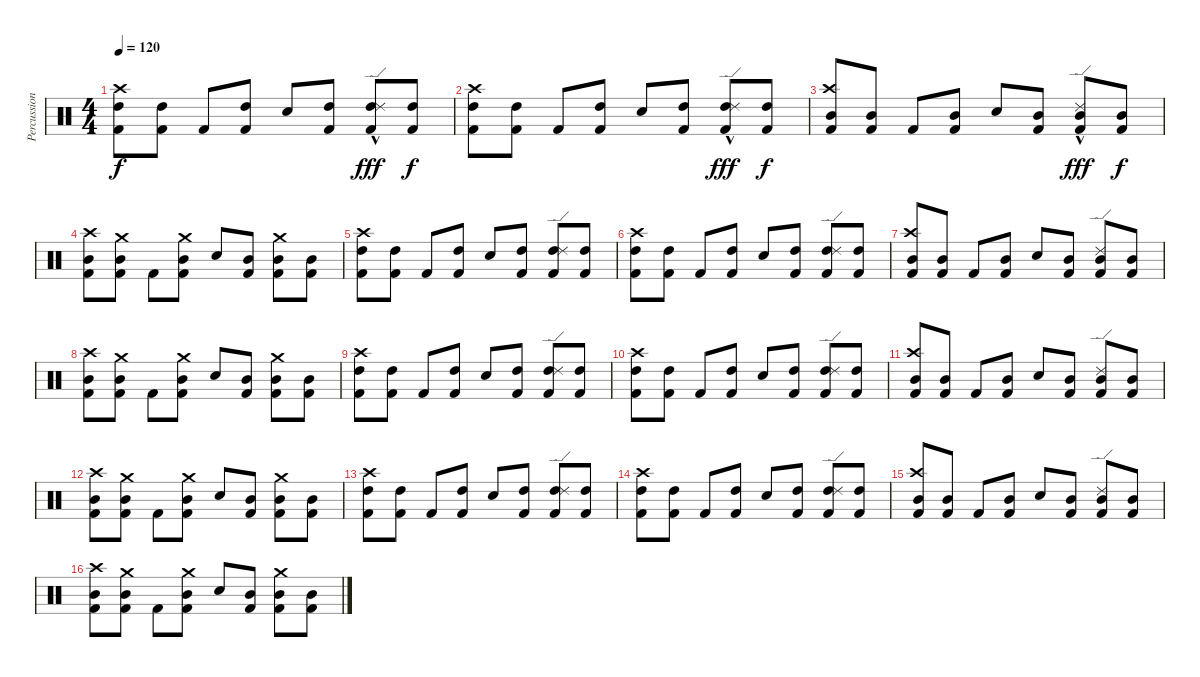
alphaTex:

\track ("Percussion" "Percussion") {instrument percussion}
\staff {score}
\articulation defaults
\ts (4 4)
\tempo 120
\clef neutral
\ks c
("Kick (hit) 2" "High Tom (hit)" "Crash high (hit)").8{dy f} ("Kick (hit) 2" "High Tom (hit)").8 "Kick (hit) 2".8 ("Kick (hit) 2" "High Tom (hit)").8 "Electric Snare (hit)".8 ("Kick (hit) 2" "High Tom (hit)").8 ("Kick (hit) 2" "High Tom (hit)" "Ride (edge) 2"{hac}).8{dy fff} ("Kick (hit) 2" "High Tom (hit)").8{dy f} |
("Kick (hit) 2" "High Tom (hit)" "Crash high (hit)").8 ("Kick (hit) 2" "High Tom (hit)").8 "Kick (hit) 2".8 ("Kick (hit) 2" "High Tom (hit)").8 "Electric Snare (hit)".8 ("Kick (hit) 2" "High Tom (hit)").8 ("Kick (hit) 2" "High Tom (hit)" "Ride (edge) 2"{hac}).8{dy fff} ("Kick (hit) 2" "High Tom (hit)").8{dy f} |
("Kick (hit) 2" "Mid Tom (hit)" "Crash high (hit)").8 ("Kick (hit) 2" "Mid Tom (hit)").8 "Kick (hit) 2".8 ("Kick (hit) 2" "Mid Tom (hit)").8 "Electric Snare (hit)".8 ("Kick (hit) 2" "Mid Tom (hit)").8 ("Kick (hit) 2" "Mid Tom (hit)" "Ride (edge) 2"{hac}).8{dy fff} ("Kick (hit) 2" "Mid Tom (hit)").8{dy f} |
("Kick (hit) 2" "Mid Tom (hit)" "Crash high (hit)").8 ("Kick (hit) 2" "Mid Tom (hit)" "Crash medium (hit)").8 "Kick (hit) 2".8 ("Kick (hit) 2" "Mid Tom (hit)" "Crash medium (hit)").8 "Electric Snare (hit)".8 ("Kick (hit) 2" "Mid Tom (hit)").8 ("Kick (hit) 2" "Mid Tom (hit)" "Crash medium (hit)").8 ("Kick (hit) 2" "Mid Tom (hit)").8 |
("Kick (hit) 2" "High Tom (hit)" "Crash high (hit)").8 ("Kick (hit) 2" "High Tom (hit)").8 "Kick (hit) 2".8 ("Kick (hit) 2" "High Tom (hit)").8 "Electric Snare (hit)".8 ("Kick (hit) 2" "High Tom (hit)").8 ("Kick (hit) 2" "High Tom (hit)" "Ride (edge) 2").8 ("Kick (hit) 2" "High Tom (hit)").8 |
("Kick (hit) 2" "High Tom (hit)" "Crash high (hit)").8 ("Kick (hit) 2" "High Tom (hit)").8 "Kick (hit) 2".8 ("Kick (hit) 2" "High Tom (hit)").8 "Electric Snare (hit)".8 ("Kick (hit) 2" "High Tom (hit)").8 ("Kick (hit) 2" "High Tom (hit)" "Ride (edge) 2").8 ("Kick (hit) 2" "High Tom (hit)").8 |
("Kick (hit) 2" "Mid Tom (hit)" "Crash high (hit)").8 ("Kick (hit) 2" "Mid Tom (hit)").8 "Kick (hit) 2".8 ("Kick (hit) 2" "Mid Tom (hit)").8 "Electric Snare (hit)".8 ("Kick (hit) 2" "Mid Tom (hit)").8 ("Kick (hit) 2" "Mid Tom (hit)" "Ride (edge) 2").8 ("Kick (hit) 2" "Mid Tom (hit)").8 |
("Kick (hit) 2" "Mid Tom (hit)" "Crash high (hit)").8 ("Kick (hit) 2" "Mid Tom (hit)" "Crash medium (hit)").8 "Kick (hit) 2".8 ("Kick (hit) 2" "Mid Tom (hit)" "Crash medium (hit)").8 "Electric Snare (hit)".8 ("Kick (hit) 2" "Mid Tom (hit)").8 ("Kick (hit) 2" "Mid Tom (hit)" "Crash medium (hit)").8 ("Kick (hit) 2" "Mid Tom (hit)").8 |
("Kick (hit) 2" "High Tom (hit)" "Crash high (hit)").8 ("Kick (hit) 2" "High Tom (hit)").8 "Kick (hit) 2".8 ("Kick (hit) 2" "High Tom (hit)").8 "Electric Snare (hit)".8 ("Kick (hit) 2" "High Tom (hit)").8 ("Kick (hit) 2" "High Tom (hit)" "Ride (edge) 2").8 ("Kick (hit) 2" "High Tom (hit)").8 |
("Kick (hit) 2" "High Tom (hit)" "Crash high (hit)").8 ("Kick (hit) 2" "High Tom (hit)").8 "Kick (hit) 2".8 ("Kick (hit) 2" "High Tom (hit)").8 "Electric Snare (hit)".8 ("Kick (hit) 2" "High Tom (hit)").8 ("Kick (hit) 2" "High Tom (hit)" "Ride (edge) 2").8 ("Kick (hit) 2" "High Tom (hit)").8 |
("Kick (hit) 2" "Mid Tom (hit)" "Crash high (hit)").8 ("Kick (hit) 2" "Mid Tom (hit)").8 "Kick (hit) 2".8 ("Kick (hit) 2" "Mid Tom (hit)").8 "Electric Snare (hit)".8 ("Kick (hit) 2" "Mid Tom (hit)").8 ("Kick (hit) 2" "Mid Tom (hit)" "Ride (edge) 2").8 ("Kick (hit) 2" "Mid Tom (hit)").8 |
("Kick (hit) 2" "Mid Tom (hit)" "Crash high (hit)").8 ("Kick (hit) 2" "Mid Tom (hit)" "Crash medium (hit)").8 "Kick (hit) 2".8 ("Kick (hit) 2" "Mid Tom (hit)" "Crash medium (hit)").8 "Electric Snare (hit)".8 ("Kick (hit) 2" "Mid Tom (hit)").8 ("Kick (hit) 2" "Mid Tom (hit)" "Crash medium (hit)").8 ("Kick (hit) 2" "Mid Tom (hit)").8 |
("Kick (hit) 2" "High Tom (hit)" "Crash high (hit)").8 ("Kick (hit) 2" "High Tom (hit)").8 "Kick (hit) 2".8 ("Kick (hit) 2" "High Tom (hit)").8 "Electric Snare (hit)".8 ("Kick (hit) 2" "High Tom (hit)").8 ("Kick (hit) 2" "High Tom (hit)" "Ride (edge) 2").8 ("Kick (hit) 2" "High Tom (hit)").8 |
("Kick (hit) 2" "High Tom (hit)" "Crash high (hit)").8 ("Kick (hit) 2" "High Tom (hit)").8 "Kick (hit) 2".8 ("Kick (hit) 2" "High Tom (hit)").8 "Electric Snare (hit)".8 ("Kick (hit) 2" "High Tom (hit)").8 ("Kick (hit) 2" "High Tom (hit)" "Ride (edge) 2").8 ("Kick (hit) 2" "High Tom (hit)").8 |
("Kick (hit) 2" "Mid Tom (hit)" "Crash high (hit)").8 ("Kick (hit) 2" "Mid Tom (hit)").8 "Kick (hit) 2".8 ("Kick (hit) 2" "Mid Tom (hit)").8 "Electric Snare (hit)".8 ("Kick (hit) 2" "Mid Tom (hit)").8 ("Kick (hit) 2" "Mid Tom (hit)" "Ride (edge) 2").8 ("Kick (hit) 2" "Mid Tom (hit)").8 |
("Kick (hit) 2" "Mid Tom (hit)" "Crash high (hit)").8 ("Kick (hit) 2" "Mid Tom (hit)" "Crash medium (hit)").8 "Kick (hit) 2".8 ("Kick (hit) 2" "Mid Tom (hit)" "Crash medium (hit)").8 "Electric Snare (hit)".8 ("Kick (hit) 2" "Mid Tom (hit)").8 ("Kick (hit) 2" "Mid Tom (hit)" "Crash medium (hit)").8 ("Kick (hit) 2" "Mid Tom (hit)").8
